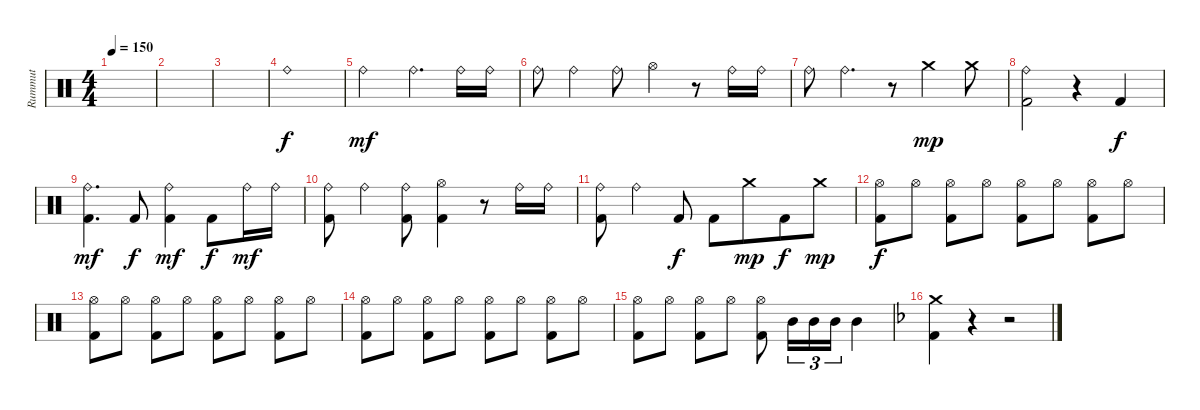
\track ("Rummut" "Rummut") {instrument percussion}
\staff {score}
\articulation defaults
\ts (4 4)
\tempo 150
\clef neutral
\ks c
|
|
|
"Ride (bell)".1 |
"Ride (bell)".2{dy mf} "Ride (bell)".4{d} "Ride (bell)".16 "Ride (bell)".16 |
"Ride (bell)".8 "Ride (bell)".4 "Ride (bell)".8 "Hi-Hat (open)".4 r.8 "Ride (bell)".16 "Ride (bell)".16 |
"Ride (bell)".8 "Ride (bell)".4{d} r.8 "Crash medium (hit)".4{dy mp} "Crash medium (hit)".8 |
("Ride (bell)" "Kick (hit) 2").2 r.4 "Kick (hit) 2".4{dy f} |
("Ride (bell)" "Kick (hit) 2").4{d dy mf} "Kick (hit) 2".8{dy f} ("Ride (bell)" "Kick (hit) 2").4{dy mf} "Kick (hit) 2".8{dy f} "Ride (bell)".16{dy mf} "Ride (bell)".16 |
("Ride (bell)" "Kick (hit) 2").8 "Ride (bell)".4 ("Ride (bell)" "Kick (hit) 2").8 ("Hi-Hat (open)" "Kick (hit) 2").4 r.8 "Ride (bell)".16 "Ride (bell)".16 |
("Ride (bell)" "Kick (hit) 2").8 "Ride (bell)".4 "Kick (hit) 2".8{dy f} "Kick (hit) 2".8 "Crash medium (hit)".8{dy mp beam merge} "Kick (hit) 2".8{dy f} "Crash medium (hit)".8{dy mp} |
("Hi-Hat (open)" "Kick (hit) 2").8{dy f} "Hi-Hat (open)".8 ("Hi-Hat (open)" "Kick (hit) 2").8 "Hi-Hat (open)".8 ("Hi-Hat (open)" "Kick (hit) 2").8 "Hi-Hat (open)".8 ("Hi-Hat (open)" "Kick (hit) 2").8 "Hi-Hat (open)".8 |
("Hi-Hat (open)" "Kick (hit) 2").8 "Hi-Hat (open)".8 ("Hi-Hat (open)" "Kick (hit) 2").8 "Hi-Hat (open)".8 ("Hi-Hat (open)" "Kick (hit) 2").8 "Hi-Hat (open)".8 ("Hi-Hat (open)" "Kick (hit) 2").8 "Hi-Hat (open)".8 |
("Hi-Hat (open)" "Kick (hit) 2").8 "Hi-Hat (open)".8 ("Hi-Hat (open)" "Kick (hit) 2").8 "Hi-Hat (open)".8 ("Hi-Hat (open)" "Kick (hit) 2").8 "Hi-Hat (open)".8 ("Hi-Hat (open)" "Kick (hit) 2").8 "Hi-Hat (open)".8 |
("Hi-Hat (open)" "Kick (hit) 2").8 "Hi-Hat (open)".8 ("Hi-Hat (open)" "Kick (hit) 2").8 "Hi-Hat (open)".8 ("Hi-Hat (open)" "Kick (hit) 2").8 "Mid Tom (hit)".16{tu (3 2)} "Mid Tom (hit)".16{tu (3 2)} "Mid Tom (hit)".16{tu (3 2)} "Mid Tom (hit)".4 |
\ks dminor
("Crash medium (hit)" "Kick (hit) 2").4 r.4 r.2
